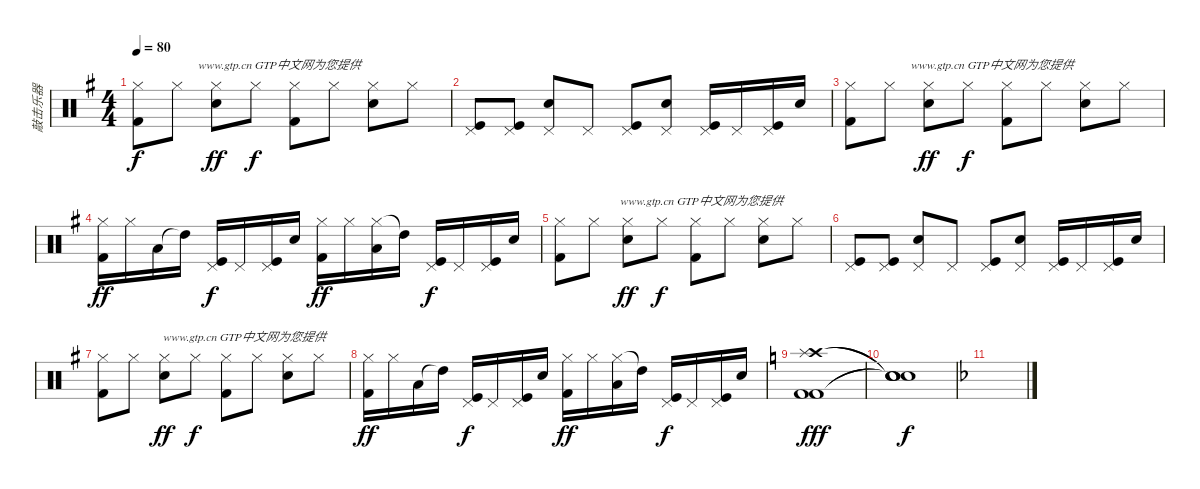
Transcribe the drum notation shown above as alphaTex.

\track ("敲击乐器" "敲击乐器") {instrument percussion}
\staff {score}
\articulation defaults
\ts (4 4)
\tempo 80
\clef neutral
\ks g
("Hi-Hat (closed)" "Kick (hit) 2").8{txt "                    www.gtp.cn GTP中文网为您提供" dy f} "Hi-Hat (closed)".8 ("Hi-Hat (closed)" "Snare (hit) 2").8{dy ff} "Hi-Hat (closed)".8{dy f} ("Hi-Hat (closed)" "Kick (hit) 2").8 "Hi-Hat (closed)".8 ("Hi-Hat (closed)" "Snare (hit) 2").8 "Hi-Hat (closed)".8 |
("Pedal Hi-Hat (hit)" "Kick (hit)").8 ("Pedal Hi-Hat (hit)" "Kick (hit)").8 ("Pedal Hi-Hat (hit)" "Electric Snare (hit)").8 "Pedal Hi-Hat (hit)".8 ("Pedal Hi-Hat (hit)" "Kick (hit)").8 ("Pedal Hi-Hat (hit)" "Electric Snare (hit)").8 ("Pedal Hi-Hat (hit)" "Kick (hit)").16 "Pedal Hi-Hat (hit)".16 ("Pedal Hi-Hat (hit)" "Kick (hit)").16 "Electric Snare (hit)".16 |
("Hi-Hat (closed)" "Kick (hit) 2").8{txt "                    www.gtp.cn GTP中文网为您提供"} "Hi-Hat (closed)".8 ("Hi-Hat (closed)" "Snare (hit) 2").8{dy ff} "Hi-Hat (closed)".8{dy f} ("Hi-Hat (closed)" "Kick (hit) 2").8 "Hi-Hat (closed)".8 ("Hi-Hat (closed)" "Snare (hit) 2").8 "Hi-Hat (closed)".8 |
("Hi-Hat (closed)" "Kick (hit) 2").16{dy ff} "Hi-Hat (closed)".16 "Low Tom (hit)".16 "High Tom (hit)"{t}.16 ("Pedal Hi-Hat (hit)" "Kick (hit)").16{dy f} "Pedal Hi-Hat (hit)".16 ("Pedal Hi-Hat (hit)" "Kick (hit)").16 "Electric Snare (hit)".16 ("Hi-Hat (closed)" "Kick (hit) 2").16{dy ff} "Hi-Hat (closed)".16 ("Hi-Hat (closed)" "Low Tom (hit)").16 "High Tom (hit)"{t}.16 ("Pedal Hi-Hat (hit)" "Kick (hit)").16{dy f} "Pedal Hi-Hat (hit)".16 ("Pedal Hi-Hat (hit)" "Kick (hit)").16 "Electric Snare (hit)".16 |
("Hi-Hat (closed)" "Kick (hit) 2").8{txt "                    www.gtp.cn GTP中文网为您提供"} "Hi-Hat (closed)".8 ("Hi-Hat (closed)" "Snare (hit) 2").8{dy ff} "Hi-Hat (closed)".8{dy f} ("Hi-Hat (closed)" "Kick (hit) 2").8 "Hi-Hat (closed)".8 ("Hi-Hat (closed)" "Snare (hit) 2").8 "Hi-Hat (closed)".8 |
("Pedal Hi-Hat (hit)" "Kick (hit)").8 ("Pedal Hi-Hat (hit)" "Kick (hit)").8 ("Pedal Hi-Hat (hit)" "Electric Snare (hit)").8 "Pedal Hi-Hat (hit)".8 ("Pedal Hi-Hat (hit)" "Kick (hit)").8 ("Pedal Hi-Hat (hit)" "Electric Snare (hit)").8 ("Pedal Hi-Hat (hit)" "Kick (hit)").16 "Pedal Hi-Hat (hit)".16 ("Pedal Hi-Hat (hit)" "Kick (hit)").16 "Electric Snare (hit)".16 |
("Hi-Hat (closed)" "Kick (hit) 2").8{txt "                    www.gtp.cn GTP中文网为您提供"} "Hi-Hat (closed)".8 ("Hi-Hat (closed)" "Snare (hit) 2").8{dy ff} "Hi-Hat (closed)".8{dy f} ("Hi-Hat (closed)" "Kick (hit) 2").8 "Hi-Hat (closed)".8 ("Hi-Hat (closed)" "Snare (hit) 2").8 "Hi-Hat (closed)".8 |
("Hi-Hat (closed)" "Kick (hit) 2").16{dy ff} "Hi-Hat (closed)".16 "Low Tom (hit)".16 "High Tom (hit)"{t}.16 ("Pedal Hi-Hat (hit)" "Kick (hit)").16{dy f} "Pedal Hi-Hat (hit)".16 ("Pedal Hi-Hat (hit)" "Kick (hit)").16 "Electric Snare (hit)".16 ("Hi-Hat (closed)" "Kick (hit) 2").16{dy ff} "Hi-Hat (closed)".16 ("Hi-Hat (closed)" "Low Tom (hit)").16 "High Tom (hit)"{t}.16 ("Pedal Hi-Hat (hit)" "Kick (hit)").16{dy f} "Pedal Hi-Hat (hit)".16 ("Pedal Hi-Hat (hit)" "Kick (hit)").16 "Electric Snare (hit)".16 |
\ks c
("Crash high (hit)" "Splash (hit)" "Kick (hit) 2" "Kick (hit) 2").1{dy fff} |
("Snare (hit)"{t} "Snare (hit)"{t} "Snare (hit)"{t} "Snare (hit)"{t}).1{dy f} |
\ks f
